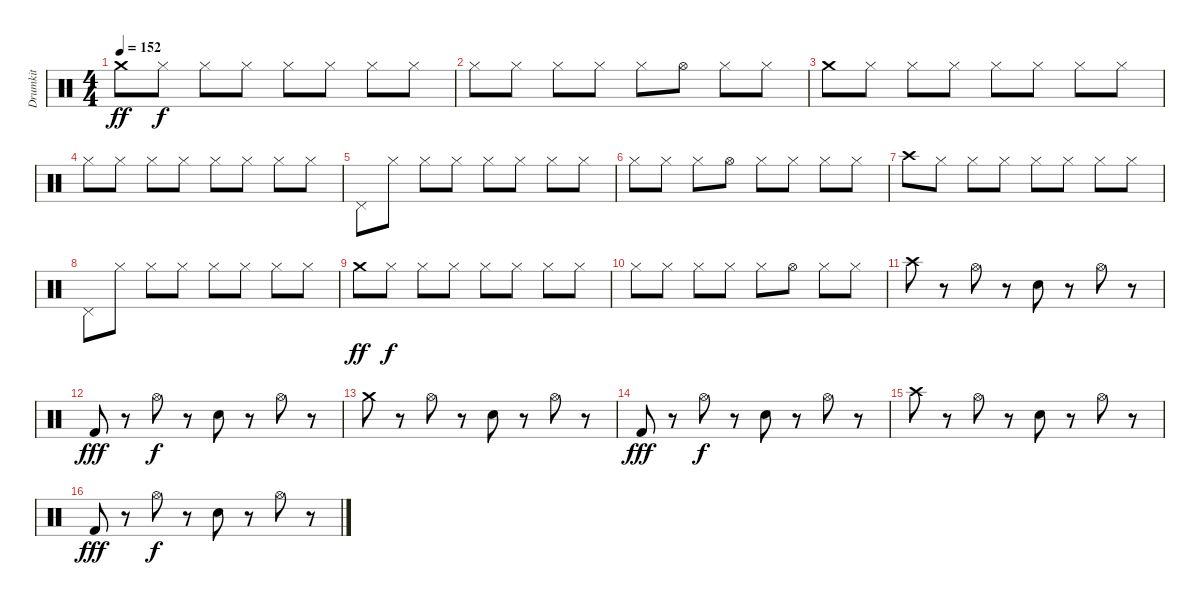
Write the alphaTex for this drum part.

\track ("Drumkit" "Drumkit") {instrument percussion}
\staff {score}
\articulation defaults
\ts (4 4)
\tempo 152
\clef neutral
\ks c "Crash medium (hit)".8{dy ff} "Hi-Hat (closed)".8{dy f} "Hi-Hat (closed)".8 "Hi-Hat (closed)".8 "Hi-Hat (closed)".8 "Hi-Hat (closed)".8 "Hi-Hat (closed)".8 "Hi-Hat (closed)".8
|
"Hi-Hat (closed)".8 "Hi-Hat (closed)".8 "Hi-Hat (closed)".8 "Hi-Hat (closed)".8 "Hi-Hat (closed)".8 "Hi-Hat (open)".8 "Hi-Hat (closed)".8 "Hi-Hat (closed)".8 |
"Crash medium (hit)".8 "Hi-Hat (closed)".8 "Hi-Hat (closed)".8 "Hi-Hat (closed)".8 "Hi-Hat (closed)".8 "Hi-Hat (closed)".8 "Hi-Hat (closed)".8 "Hi-Hat (closed)".8 |
"Hi-Hat (closed)".8 "Hi-Hat (closed)".8 "Hi-Hat (closed)".8 "Hi-Hat (closed)".8 "Hi-Hat (closed)".8 "Hi-Hat (closed)".8 "Hi-Hat (closed)".8 "Hi-Hat (closed)".8 |
"Pedal Hi-Hat (hit)".8 "Hi-Hat (closed)".8 "Hi-Hat (closed)".8 "Hi-Hat (closed)".8 "Hi-Hat (closed)".8 "Hi-Hat (closed)".8 "Hi-Hat (closed)".8 "Hi-Hat (closed)".8 |
"Hi-Hat (closed)".8 "Hi-Hat (closed)".8 "Hi-Hat (closed)".8 "Hi-Hat (open)".8 "Hi-Hat (closed)".8 "Hi-Hat (closed)".8 "Hi-Hat (closed)".8 "Hi-Hat (closed)".8 |
"Crash high (hit)".8 "Hi-Hat (closed)".8 "Hi-Hat (closed)".8 "Hi-Hat (closed)".8 "Hi-Hat (closed)".8 "Hi-Hat (closed)".8 "Hi-Hat (closed)".8 "Hi-Hat (closed)".8 |
"Pedal Hi-Hat (hit)".8 "Hi-Hat (closed)".8 "Hi-Hat (closed)".8 "Hi-Hat (closed)".8 "Hi-Hat (closed)".8 "Hi-Hat (closed)".8 "Hi-Hat (closed)".8 "Hi-Hat (closed)".8 |
"Crash medium (hit)".8{dy ff} "Hi-Hat (closed)".8{dy f} "Hi-Hat (closed)".8 "Hi-Hat (closed)".8 "Hi-Hat (closed)".8 "Hi-Hat (closed)".8 "Hi-Hat (closed)".8 "Hi-Hat (closed)".8 |
"Hi-Hat (closed)".8 "Hi-Hat (closed)".8 "Hi-Hat (closed)".8 "Hi-Hat (closed)".8 "Hi-Hat (closed)".8 "Hi-Hat (open)".8 "Hi-Hat (closed)".8 "Hi-Hat (closed)".8 |
"Crash high (hit)".8 r.8 "Hi-Hat (open)".8 r.8 "Snare (hit) 2".8 r.8 "Hi-Hat (open)".8 r.8 |
"Kick (hit) 2".8{dy fff} r.8 "Hi-Hat (open)".8{dy f} r.8 "Snare (hit) 2".8 r.8 "Hi-Hat (open)".8 r.8 |
"Crash medium (hit)".8 r.8 "Hi-Hat (open)".8 r.8 "Snare (hit) 2".8 r.8 "Hi-Hat (open)".8 r.8 |
"Kick (hit) 2".8{dy fff} r.8 "Hi-Hat (open)".8{dy f} r.8 "Snare (hit) 2".8 r.8 "Hi-Hat (open)".8 r.8 |
"Crash high (hit)".8 r.8 "Hi-Hat (open)".8 r.8 "Snare (hit) 2".8 r.8 "Hi-Hat (open)".8 r.8 |
"Kick (hit) 2".8{dy fff} r.8 "Hi-Hat (open)".8{dy f} r.8 "Snare (hit) 2".8 r.8 "Hi-Hat (open)".8 r.8
